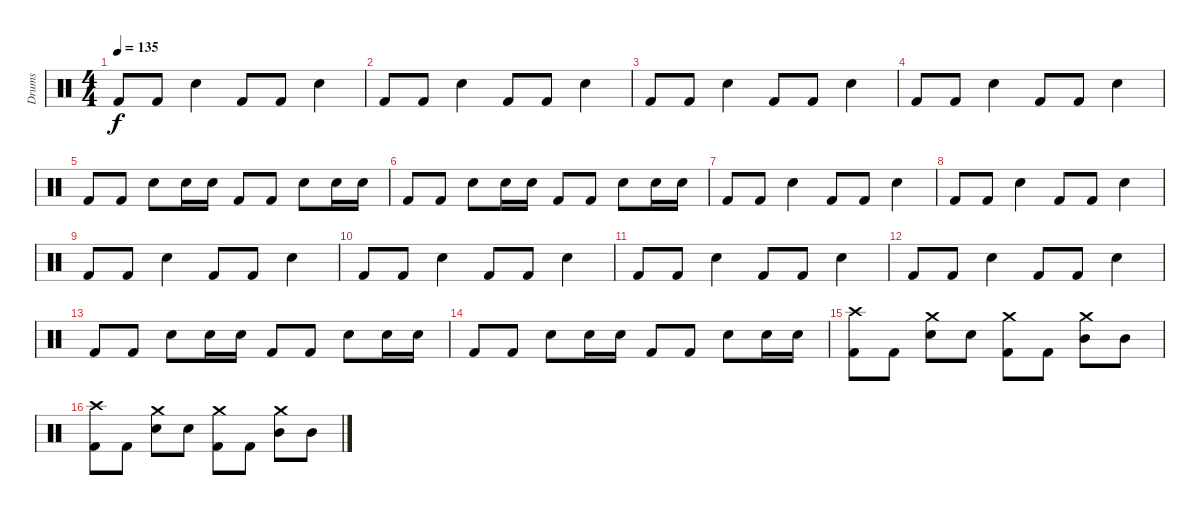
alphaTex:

\track ("Drums" "Drums") {instrument percussion}
\staff {score}
\articulation defaults
\ts (4 4)
\tempo 135
\clef neutral
\ks c "Kick (hit) 2".8{dy f} "Kick (hit) 2".8 "Snare (hit) 2".4 "Kick (hit) 2".8 "Kick (hit) 2".8 "Snare (hit) 2".4
|
"Kick (hit) 2".8 "Kick (hit) 2".8 "Snare (hit) 2".4 "Kick (hit) 2".8 "Kick (hit) 2".8 "Snare (hit) 2".4 |
"Kick (hit) 2".8 "Kick (hit) 2".8 "Snare (hit) 2".4 "Kick (hit) 2".8 "Kick (hit) 2".8 "Snare (hit) 2".4 |
"Kick (hit) 2".8 "Kick (hit) 2".8 "Snare (hit) 2".4 "Kick (hit) 2".8 "Kick (hit) 2".8 "Snare (hit) 2".4 |
"Kick (hit) 2".8 "Kick (hit) 2".8 "Snare (hit) 2".8 "Snare (hit) 2".16 "Snare (hit) 2".16 "Kick (hit) 2".8 "Kick (hit) 2".8 "Snare (hit) 2".8 "Snare (hit) 2".16 "Snare (hit) 2".16 |
"Kick (hit) 2".8 "Kick (hit) 2".8 "Snare (hit) 2".8 "Snare (hit) 2".16 "Snare (hit) 2".16 "Kick (hit) 2".8 "Kick (hit) 2".8 "Snare (hit) 2".8 "Snare (hit) 2".16 "Snare (hit) 2".16 |
"Kick (hit) 2".8 "Kick (hit) 2".8 "Snare (hit) 2".4 "Kick (hit) 2".8 "Kick (hit) 2".8 "Snare (hit) 2".4 |
"Kick (hit) 2".8 "Kick (hit) 2".8 "Snare (hit) 2".4 "Kick (hit) 2".8 "Kick (hit) 2".8 "Snare (hit) 2".4 |
"Kick (hit) 2".8 "Kick (hit) 2".8 "Snare (hit) 2".4 "Kick (hit) 2".8 "Kick (hit) 2".8 "Snare (hit) 2".4 |
"Kick (hit) 2".8 "Kick (hit) 2".8 "Snare (hit) 2".4 "Kick (hit) 2".8 "Kick (hit) 2".8 "Snare (hit) 2".4 |
"Kick (hit) 2".8 "Kick (hit) 2".8 "Snare (hit) 2".4 "Kick (hit) 2".8 "Kick (hit) 2".8 "Snare (hit) 2".4 |
"Kick (hit) 2".8 "Kick (hit) 2".8 "Snare (hit) 2".4 "Kick (hit) 2".8 "Kick (hit) 2".8 "Snare (hit) 2".4 |
"Kick (hit) 2".8 "Kick (hit) 2".8 "Snare (hit) 2".8 "Snare (hit) 2".16 "Snare (hit) 2".16 "Kick (hit) 2".8 "Kick (hit) 2".8 "Snare (hit) 2".8 "Snare (hit) 2".16 "Snare (hit) 2".16 |
"Kick (hit) 2".8 "Kick (hit) 2".8 "Snare (hit) 2".8 "Snare (hit) 2".16 "Snare (hit) 2".16 "Kick (hit) 2".8 "Kick (hit) 2".8 "Snare (hit) 2".8 "Snare (hit) 2".16 "Snare (hit) 2".16 |
("Kick (hit) 2" "Crash high (hit)").8 "Kick (hit) 2".8 ("Snare (hit) 2" "Crash medium (hit)").8 "Snare (hit) 2".8 ("Kick (hit) 2" "Crash medium (hit)").8 "Kick (hit) 2".8 ("Mid Tom (hit)" "Crash medium (hit)").8 "Mid Tom (hit)".8 |
("Kick (hit) 2" "Crash high (hit)").8 "Kick (hit) 2".8 ("Snare (hit) 2" "Crash medium (hit)").8 "Snare (hit) 2".8 ("Kick (hit) 2" "Crash medium (hit)").8 "Kick (hit) 2".8 ("Mid Tom (hit)" "Crash medium (hit)").8 "Mid Tom (hit)".8
